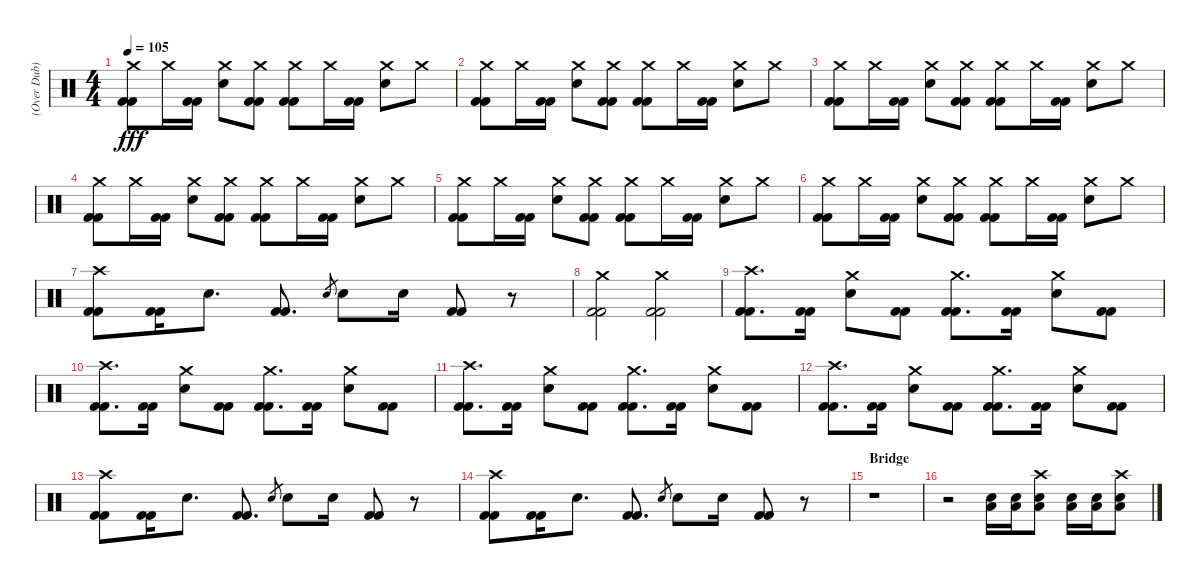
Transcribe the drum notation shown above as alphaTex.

\track ("(Over Dub)" "(Over Dub)") {instrument percussion}
\staff {score}
\articulation defaults
\ts (4 4)
\tempo 105
\clef neutral
\ks c
("Crash medium (hit)" "Kick (hit) 2" "Kick (hit) 2").8{dy fff} "Crash medium (hit)".16 ("Kick (hit) 2" "Kick (hit) 2").16 ("Crash medium (hit)" "Electric Snare (hit)").8 ("Crash medium (hit)" "Kick (hit) 2" "Kick (hit) 2").8 ("Crash medium (hit)" "Kick (hit) 2" "Kick (hit) 2").8 "Crash medium (hit)".16 ("Kick (hit) 2" "Kick (hit) 2").16 ("Crash medium (hit)" "Electric Snare (hit)").8 "Crash medium (hit)".8 |
("Crash medium (hit)" "Kick (hit) 2" "Kick (hit) 2").8 "Crash medium (hit)".16 ("Kick (hit) 2" "Kick (hit) 2").16 ("Crash medium (hit)" "Electric Snare (hit)").8 ("Crash medium (hit)" "Kick (hit) 2" "Kick (hit) 2").8 ("Crash medium (hit)" "Kick (hit) 2" "Kick (hit) 2").8 "Crash medium (hit)".16 ("Kick (hit) 2" "Kick (hit) 2").16 ("Crash medium (hit)" "Electric Snare (hit)").8 "Crash medium (hit)".8 |
("Crash medium (hit)" "Kick (hit) 2" "Kick (hit) 2").8 "Crash medium (hit)".16 ("Kick (hit) 2" "Kick (hit) 2").16 ("Crash medium (hit)" "Electric Snare (hit)").8 ("Crash medium (hit)" "Kick (hit) 2" "Kick (hit) 2").8 ("Crash medium (hit)" "Kick (hit) 2" "Kick (hit) 2").8 "Crash medium (hit)".16 ("Kick (hit) 2" "Kick (hit) 2").16 ("Crash medium (hit)" "Electric Snare (hit)").8 "Crash medium (hit)".8 |
("Crash medium (hit)" "Kick (hit) 2" "Kick (hit) 2").8 "Crash medium (hit)".16 ("Kick (hit) 2" "Kick (hit) 2").16 ("Crash medium (hit)" "Electric Snare (hit)").8 ("Crash medium (hit)" "Kick (hit) 2" "Kick (hit) 2").8 ("Crash medium (hit)" "Kick (hit) 2" "Kick (hit) 2").8 "Crash medium (hit)".16 ("Kick (hit) 2" "Kick (hit) 2").16 ("Crash medium (hit)" "Electric Snare (hit)").8 "Crash medium (hit)".8 |
("Crash medium (hit)" "Kick (hit) 2" "Kick (hit) 2").8 "Crash medium (hit)".16 ("Kick (hit) 2" "Kick (hit) 2").16 ("Crash medium (hit)" "Electric Snare (hit)").8 ("Crash medium (hit)" "Kick (hit) 2" "Kick (hit) 2").8 ("Crash medium (hit)" "Kick (hit) 2" "Kick (hit) 2").8 "Crash medium (hit)".16 ("Kick (hit) 2" "Kick (hit) 2").16 ("Crash medium (hit)" "Electric Snare (hit)").8 "Crash medium (hit)".8 |
("Crash medium (hit)" "Kick (hit) 2" "Kick (hit) 2").8 "Crash medium (hit)".16 ("Kick (hit) 2" "Kick (hit) 2").16 ("Crash medium (hit)" "Electric Snare (hit)").8 ("Crash medium (hit)" "Kick (hit) 2" "Kick (hit) 2").8 ("Crash medium (hit)" "Kick (hit) 2" "Kick (hit) 2").8 "Crash medium (hit)".16 ("Kick (hit) 2" "Kick (hit) 2").16 ("Crash medium (hit)" "Electric Snare (hit)").8 "Crash medium (hit)".8 |
("Crash high (hit)" "Kick (hit) 2" "Kick (hit) 2").8 ("Kick (hit) 2" "Kick (hit) 2").16 "Electric Snare (hit)".8{d} ("Kick (hit) 2" "Kick (hit) 2").8{d} "Electric Snare (hit)".8{gr} "Electric Snare (hit)".8 "Electric Snare (hit)".16 ("Kick (hit) 2" "Kick (hit) 2").8 r.8 |
("Crash medium (hit)" "Kick (hit) 2" "Kick (hit) 2").2 ("Crash medium (hit)" "Kick (hit) 2" "Kick (hit) 2").2 |
("Crash high (hit)" "Kick (hit) 2" "Kick (hit) 2").8{d} ("Kick (hit) 2" "Kick (hit) 2").16 ("Crash medium (hit)" "Electric Snare (hit)").8 ("Kick (hit) 2" "Kick (hit) 2").8 ("Crash medium (hit)" "Kick (hit) 2" "Kick (hit) 2").8{d} ("Kick (hit) 2" "Kick (hit) 2").16 ("Crash medium (hit)" "Electric Snare (hit)").8 ("Kick (hit) 2" "Kick (hit) 2").8 |
("Crash high (hit)" "Kick (hit) 2" "Kick (hit) 2").8{d} ("Kick (hit) 2" "Kick (hit) 2").16 ("Crash medium (hit)" "Electric Snare (hit)").8 ("Kick (hit) 2" "Kick (hit) 2").8 ("Crash medium (hit)" "Kick (hit) 2" "Kick (hit) 2").8{d} ("Kick (hit) 2" "Kick (hit) 2").16 ("Crash medium (hit)" "Electric Snare (hit)").8 ("Kick (hit) 2" "Kick (hit) 2").8 |
("Crash high (hit)" "Kick (hit) 2" "Kick (hit) 2").8{d} ("Kick (hit) 2" "Kick (hit) 2").16 ("Crash medium (hit)" "Electric Snare (hit)").8 ("Kick (hit) 2" "Kick (hit) 2").8 ("Crash medium (hit)" "Kick (hit) 2" "Kick (hit) 2").8{d} ("Kick (hit) 2" "Kick (hit) 2").16 ("Crash medium (hit)" "Electric Snare (hit)").8 ("Kick (hit) 2" "Kick (hit) 2").8 |
("Crash high (hit)" "Kick (hit) 2" "Kick (hit) 2").8{d} ("Kick (hit) 2" "Kick (hit) 2").16 ("Crash medium (hit)" "Electric Snare (hit)").8 ("Kick (hit) 2" "Kick (hit) 2").8 ("Crash medium (hit)" "Kick (hit) 2" "Kick (hit) 2").8{d} ("Kick (hit) 2" "Kick (hit) 2").16 ("Crash medium (hit)" "Electric Snare (hit)").8 ("Kick (hit) 2" "Kick (hit) 2").8 |
("Crash high (hit)" "Kick (hit) 2" "Kick (hit) 2").8 ("Kick (hit) 2" "Kick (hit) 2").16 "Electric Snare (hit)".8{d} ("Kick (hit) 2" "Kick (hit) 2").8{d} "Electric Snare (hit)".8{gr} "Electric Snare (hit)".8 "Electric Snare (hit)".16 ("Kick (hit) 2" "Kick (hit) 2").8 r.8 |
("Crash high (hit)" "Kick (hit) 2" "Kick (hit) 2").8 ("Kick (hit) 2" "Kick (hit) 2").16 "Electric Snare (hit)".8{d} ("Kick (hit) 2" "Kick (hit) 2").8{d} "Electric Snare (hit)".8{gr} "Electric Snare (hit)".8 "Electric Snare (hit)".16 ("Kick (hit) 2" "Kick (hit) 2").8 r.8 |
\section ("" "Bridge")
r.1 |
r.2 ("Low Floor Tom (hit)" "Electric Snare (hit)").16 ("Low Floor Tom (hit)" "Electric Snare (hit)").16 ("Crash high (hit)" "Low Floor Tom (hit)" "Electric Snare (hit)").8 ("Low Floor Tom (hit)" "Electric Snare (hit)").16 ("Low Floor Tom (hit)" "Electric Snare (hit)").16 ("Crash high (hit)" "Low Floor Tom (hit)" "Electric Snare (hit)").8
